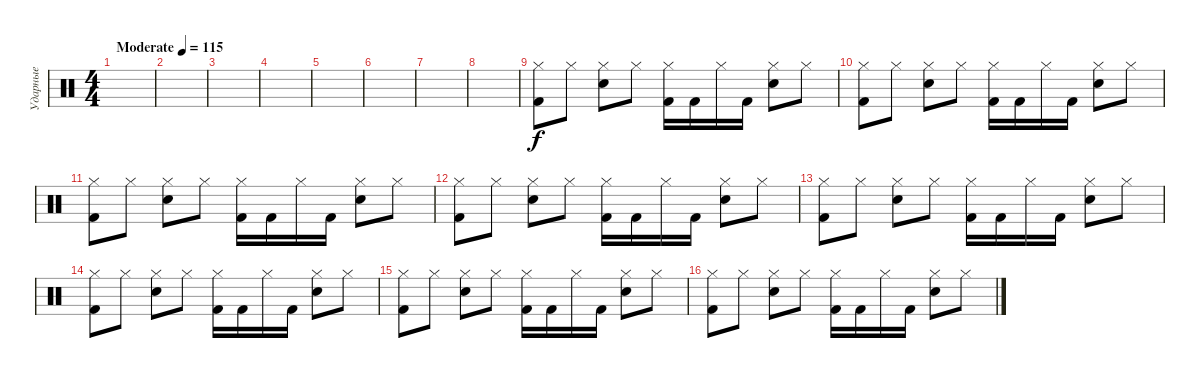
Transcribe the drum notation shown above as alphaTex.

\track ("Ударные" "Ударные") {instrument percussion}
\staff {score}
\articulation defaults
\ts (4 4)
\tempo (115 "Moderate")
\clef neutral
\ks c
|
|
|
|
|
|
|
|
("Hi-Hat (closed)" "Kick (hit) 2").8 "Hi-Hat (closed)".8 ("Hi-Hat (closed)" "Electric Snare (hit)").8 "Hi-Hat (closed)".8 ("Hi-Hat (closed)" "Kick (hit) 2").16 "Kick (hit) 2".16 "Hi-Hat (closed)".16 "Kick (hit) 2".16 ("Hi-Hat (closed)" "Electric Snare (hit)").8 "Hi-Hat (closed)".8 |
("Hi-Hat (closed)" "Kick (hit) 2").8 "Hi-Hat (closed)".8 ("Hi-Hat (closed)" "Electric Snare (hit)").8 "Hi-Hat (closed)".8 ("Hi-Hat (closed)" "Kick (hit) 2").16 "Kick (hit) 2".16 "Hi-Hat (closed)".16 "Kick (hit) 2".16 ("Hi-Hat (closed)" "Electric Snare (hit)").8 "Hi-Hat (closed)".8 |
("Hi-Hat (closed)" "Kick (hit) 2").8 "Hi-Hat (closed)".8 ("Hi-Hat (closed)" "Electric Snare (hit)").8 "Hi-Hat (closed)".8 ("Hi-Hat (closed)" "Kick (hit) 2").16 "Kick (hit) 2".16 "Hi-Hat (closed)".16 "Kick (hit) 2".16 ("Hi-Hat (closed)" "Electric Snare (hit)").8 "Hi-Hat (closed)".8 |
("Hi-Hat (closed)" "Kick (hit) 2").8 "Hi-Hat (closed)".8 ("Hi-Hat (closed)" "Electric Snare (hit)").8 "Hi-Hat (closed)".8 ("Hi-Hat (closed)" "Kick (hit) 2").16 "Kick (hit) 2".16 "Hi-Hat (closed)".16 "Kick (hit) 2".16 ("Hi-Hat (closed)" "Electric Snare (hit)").8 "Hi-Hat (closed)".8 |
("Hi-Hat (closed)" "Kick (hit) 2").8 "Hi-Hat (closed)".8 ("Hi-Hat (closed)" "Electric Snare (hit)").8 "Hi-Hat (closed)".8 ("Hi-Hat (closed)" "Kick (hit) 2").16 "Kick (hit) 2".16 "Hi-Hat (closed)".16 "Kick (hit) 2".16 ("Hi-Hat (closed)" "Electric Snare (hit)").8 "Hi-Hat (closed)".8 |
("Hi-Hat (closed)" "Kick (hit) 2").8 "Hi-Hat (closed)".8 ("Hi-Hat (closed)" "Electric Snare (hit)").8 "Hi-Hat (closed)".8 ("Hi-Hat (closed)" "Kick (hit) 2").16 "Kick (hit) 2".16 "Hi-Hat (closed)".16 "Kick (hit) 2".16 ("Hi-Hat (closed)" "Electric Snare (hit)").8 "Hi-Hat (closed)".8 |
("Hi-Hat (closed)" "Kick (hit) 2").8 "Hi-Hat (closed)".8 ("Hi-Hat (closed)" "Electric Snare (hit)").8 "Hi-Hat (closed)".8 ("Hi-Hat (closed)" "Kick (hit) 2").16 "Kick (hit) 2".16 "Hi-Hat (closed)".16 "Kick (hit) 2".16 ("Hi-Hat (closed)" "Electric Snare (hit)").8 "Hi-Hat (closed)".8 |
("Hi-Hat (closed)" "Kick (hit) 2").8 "Hi-Hat (closed)".8 ("Hi-Hat (closed)" "Electric Snare (hit)").8 "Hi-Hat (closed)".8 ("Hi-Hat (closed)" "Kick (hit) 2").16 "Kick (hit) 2".16 "Hi-Hat (closed)".16 "Kick (hit) 2".16 ("Hi-Hat (closed)" "Electric Snare (hit)").8 "Hi-Hat (closed)".8
